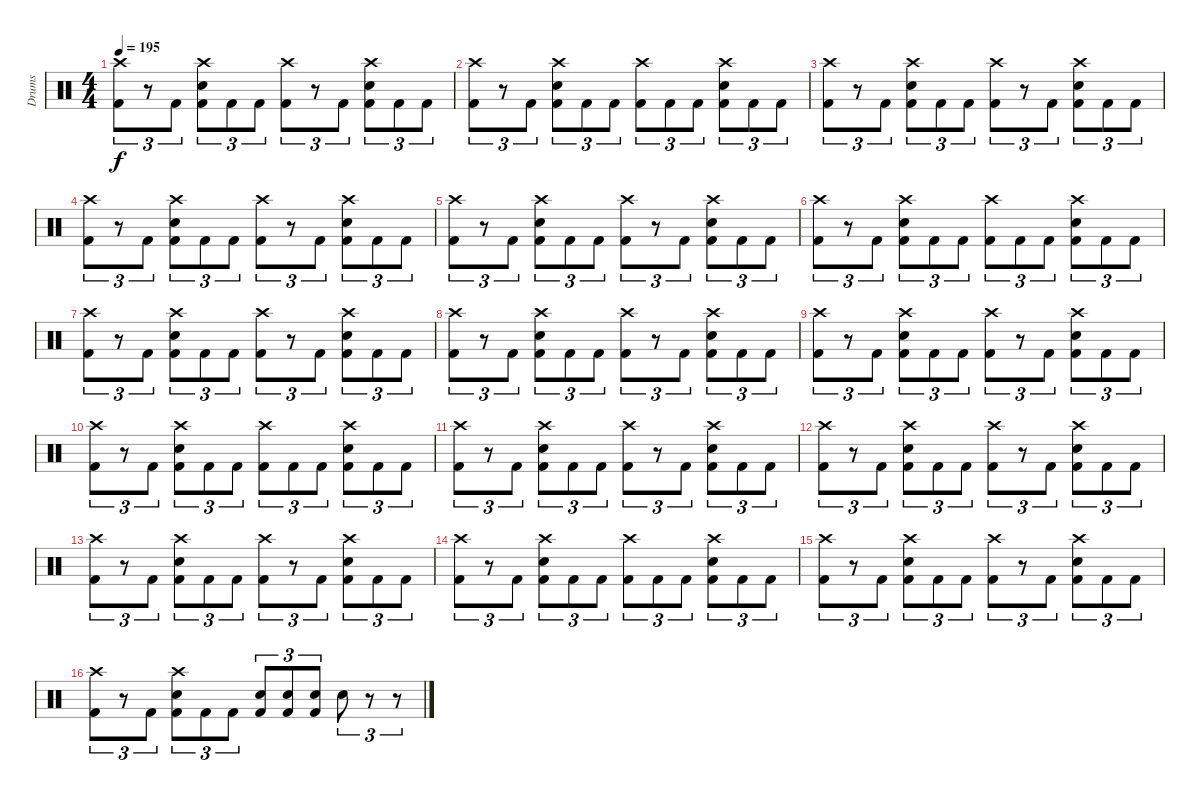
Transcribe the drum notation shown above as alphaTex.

\track ("Drums" "Drums") {instrument percussion}
\staff {score}
\articulation defaults
\ts (4 4)
\tempo 195
\clef neutral
\ks c
("Crash high (hit)" "Kick (hit) 2").8{tu (3 2) dy f} r.8{tu (3 2)} "Kick (hit) 2".8{tu (3 2)} ("Crash high (hit)" "Snare (hit) 2" "Kick (hit) 2").8{tu (3 2)} "Kick (hit) 2".8{tu (3 2)} "Kick (hit) 2".8{tu (3 2)} ("Crash high (hit)" "Kick (hit) 2").8{tu (3 2)} r.8{tu (3 2)} "Kick (hit) 2".8{tu (3 2)} ("Crash high (hit)" "Snare (hit) 2" "Kick (hit) 2").8{tu (3 2)} "Kick (hit) 2".8{tu (3 2)} "Kick (hit) 2".8{tu (3 2)} |
("Crash high (hit)" "Kick (hit) 2").8{tu (3 2)} r.8{tu (3 2)} "Kick (hit) 2".8{tu (3 2)} ("Crash high (hit)" "Snare (hit) 2" "Kick (hit) 2").8{tu (3 2)} "Kick (hit) 2".8{tu (3 2)} "Kick (hit) 2".8{tu (3 2)} ("Crash high (hit)" "Kick (hit) 2").8{tu (3 2)} "Kick (hit) 2".8{tu (3 2)} "Kick (hit) 2".8{tu (3 2)} ("Crash high (hit)" "Snare (hit) 2" "Kick (hit) 2").8{tu (3 2)} "Kick (hit) 2".8{tu (3 2)} "Kick (hit) 2".8{tu (3 2)} |
("Crash high (hit)" "Kick (hit) 2").8{tu (3 2)} r.8{tu (3 2)} "Kick (hit) 2".8{tu (3 2)} ("Crash high (hit)" "Snare (hit) 2" "Kick (hit) 2").8{tu (3 2)} "Kick (hit) 2".8{tu (3 2)} "Kick (hit) 2".8{tu (3 2)} ("Crash high (hit)" "Kick (hit) 2").8{tu (3 2)} r.8{tu (3 2)} "Kick (hit) 2".8{tu (3 2)} ("Crash high (hit)" "Snare (hit) 2" "Kick (hit) 2").8{tu (3 2)} "Kick (hit) 2".8{tu (3 2)} "Kick (hit) 2".8{tu (3 2)} |
("Crash high (hit)" "Kick (hit) 2").8{tu (3 2)} r.8{tu (3 2)} "Kick (hit) 2".8{tu (3 2)} ("Crash high (hit)" "Snare (hit) 2" "Kick (hit) 2").8{tu (3 2)} "Kick (hit) 2".8{tu (3 2)} "Kick (hit) 2".8{tu (3 2)} ("Crash high (hit)" "Kick (hit) 2").8{tu (3 2)} r.8{tu (3 2)} "Kick (hit) 2".8{tu (3 2)} ("Crash high (hit)" "Snare (hit) 2" "Kick (hit) 2").8{tu (3 2)} "Kick (hit) 2".8{tu (3 2)} "Kick (hit) 2".8{tu (3 2)} |
("Crash high (hit)" "Kick (hit) 2").8{tu (3 2)} r.8{tu (3 2)} "Kick (hit) 2".8{tu (3 2)} ("Crash high (hit)" "Snare (hit) 2" "Kick (hit) 2").8{tu (3 2)} "Kick (hit) 2".8{tu (3 2)} "Kick (hit) 2".8{tu (3 2)} ("Crash high (hit)" "Kick (hit) 2").8{tu (3 2)} r.8{tu (3 2)} "Kick (hit) 2".8{tu (3 2)} ("Crash high (hit)" "Snare (hit) 2" "Kick (hit) 2").8{tu (3 2)} "Kick (hit) 2".8{tu (3 2)} "Kick (hit) 2".8{tu (3 2)} |
("Crash high (hit)" "Kick (hit) 2").8{tu (3 2)} r.8{tu (3 2)} "Kick (hit) 2".8{tu (3 2)} ("Crash high (hit)" "Snare (hit) 2" "Kick (hit) 2").8{tu (3 2)} "Kick (hit) 2".8{tu (3 2)} "Kick (hit) 2".8{tu (3 2)} ("Crash high (hit)" "Kick (hit) 2").8{tu (3 2)} "Kick (hit) 2".8{tu (3 2)} "Kick (hit) 2".8{tu (3 2)} ("Crash high (hit)" "Snare (hit) 2" "Kick (hit) 2").8{tu (3 2)} "Kick (hit) 2".8{tu (3 2)} "Kick (hit) 2".8{tu (3 2)} |
("Crash high (hit)" "Kick (hit) 2").8{tu (3 2)} r.8{tu (3 2)} "Kick (hit) 2".8{tu (3 2)} ("Crash high (hit)" "Snare (hit) 2" "Kick (hit) 2").8{tu (3 2)} "Kick (hit) 2".8{tu (3 2)} "Kick (hit) 2".8{tu (3 2)} ("Crash high (hit)" "Kick (hit) 2").8{tu (3 2)} r.8{tu (3 2)} "Kick (hit) 2".8{tu (3 2)} ("Crash high (hit)" "Snare (hit) 2" "Kick (hit) 2").8{tu (3 2)} "Kick (hit) 2".8{tu (3 2)} "Kick (hit) 2".8{tu (3 2)} |
("Crash high (hit)" "Kick (hit) 2").8{tu (3 2)} r.8{tu (3 2)} "Kick (hit) 2".8{tu (3 2)} ("Crash high (hit)" "Snare (hit) 2" "Kick (hit) 2").8{tu (3 2)} "Kick (hit) 2".8{tu (3 2)} "Kick (hit) 2".8{tu (3 2)} ("Crash high (hit)" "Kick (hit) 2").8{tu (3 2)} r.8{tu (3 2)} "Kick (hit) 2".8{tu (3 2)} ("Crash high (hit)" "Snare (hit) 2" "Kick (hit) 2").8{tu (3 2)} "Kick (hit) 2".8{tu (3 2)} "Kick (hit) 2".8{tu (3 2)} |
("Crash high (hit)" "Kick (hit) 2").8{tu (3 2)} r.8{tu (3 2)} "Kick (hit) 2".8{tu (3 2)} ("Crash high (hit)" "Snare (hit) 2" "Kick (hit) 2").8{tu (3 2)} "Kick (hit) 2".8{tu (3 2)} "Kick (hit) 2".8{tu (3 2)} ("Crash high (hit)" "Kick (hit) 2").8{tu (3 2)} r.8{tu (3 2)} "Kick (hit) 2".8{tu (3 2)} ("Crash high (hit)" "Snare (hit) 2" "Kick (hit) 2").8{tu (3 2)} "Kick (hit) 2".8{tu (3 2)} "Kick (hit) 2".8{tu (3 2)} |
("Crash high (hit)" "Kick (hit) 2").8{tu (3 2)} r.8{tu (3 2)} "Kick (hit) 2".8{tu (3 2)} ("Crash high (hit)" "Snare (hit) 2" "Kick (hit) 2").8{tu (3 2)} "Kick (hit) 2".8{tu (3 2)} "Kick (hit) 2".8{tu (3 2)} ("Crash high (hit)" "Kick (hit) 2").8{tu (3 2)} "Kick (hit) 2".8{tu (3 2)} "Kick (hit) 2".8{tu (3 2)} ("Crash high (hit)" "Snare (hit) 2" "Kick (hit) 2").8{tu (3 2)} "Kick (hit) 2".8{tu (3 2)} "Kick (hit) 2".8{tu (3 2)} |
("Crash high (hit)" "Kick (hit) 2").8{tu (3 2)} r.8{tu (3 2)} "Kick (hit) 2".8{tu (3 2)} ("Crash high (hit)" "Snare (hit) 2" "Kick (hit) 2").8{tu (3 2)} "Kick (hit) 2".8{tu (3 2)} "Kick (hit) 2".8{tu (3 2)} ("Crash high (hit)" "Kick (hit) 2").8{tu (3 2)} r.8{tu (3 2)} "Kick (hit) 2".8{tu (3 2)} ("Crash high (hit)" "Snare (hit) 2" "Kick (hit) 2").8{tu (3 2)} "Kick (hit) 2".8{tu (3 2)} "Kick (hit) 2".8{tu (3 2)} |
("Crash high (hit)" "Kick (hit) 2").8{tu (3 2)} r.8{tu (3 2)} "Kick (hit) 2".8{tu (3 2)} ("Crash high (hit)" "Snare (hit) 2" "Kick (hit) 2").8{tu (3 2)} "Kick (hit) 2".8{tu (3 2)} "Kick (hit) 2".8{tu (3 2)} ("Crash high (hit)" "Kick (hit) 2").8{tu (3 2)} r.8{tu (3 2)} "Kick (hit) 2".8{tu (3 2)} ("Crash high (hit)" "Snare (hit) 2" "Kick (hit) 2").8{tu (3 2)} "Kick (hit) 2".8{tu (3 2)} "Kick (hit) 2".8{tu (3 2)} |
("Crash high (hit)" "Kick (hit) 2").8{tu (3 2)} r.8{tu (3 2)} "Kick (hit) 2".8{tu (3 2)} ("Crash high (hit)" "Snare (hit) 2" "Kick (hit) 2").8{tu (3 2)} "Kick (hit) 2".8{tu (3 2)} "Kick (hit) 2".8{tu (3 2)} ("Crash high (hit)" "Kick (hit) 2").8{tu (3 2)} r.8{tu (3 2)} "Kick (hit) 2".8{tu (3 2)} ("Crash high (hit)" "Snare (hit) 2" "Kick (hit) 2").8{tu (3 2)} "Kick (hit) 2".8{tu (3 2)} "Kick (hit) 2".8{tu (3 2)} |
("Crash high (hit)" "Kick (hit) 2").8{tu (3 2)} r.8{tu (3 2)} "Kick (hit) 2".8{tu (3 2)} ("Crash high (hit)" "Snare (hit) 2" "Kick (hit) 2").8{tu (3 2)} "Kick (hit) 2".8{tu (3 2)} "Kick (hit) 2".8{tu (3 2)} ("Crash high (hit)" "Kick (hit) 2").8{tu (3 2)} "Kick (hit) 2".8{tu (3 2)} "Kick (hit) 2".8{tu (3 2)} ("Crash high (hit)" "Snare (hit) 2" "Kick (hit) 2").8{tu (3 2)} "Kick (hit) 2".8{tu (3 2)} "Kick (hit) 2".8{tu (3 2)} |
("Crash high (hit)" "Kick (hit) 2").8{tu (3 2)} r.8{tu (3 2)} "Kick (hit) 2".8{tu (3 2)} ("Crash high (hit)" "Snare (hit) 2" "Kick (hit) 2").8{tu (3 2)} "Kick (hit) 2".8{tu (3 2)} "Kick (hit) 2".8{tu (3 2)} ("Crash high (hit)" "Kick (hit) 2").8{tu (3 2)} r.8{tu (3 2)} "Kick (hit) 2".8{tu (3 2)} ("Crash high (hit)" "Snare (hit) 2" "Kick (hit) 2").8{tu (3 2)} "Kick (hit) 2".8{tu (3 2)} "Kick (hit) 2".8{tu (3 2)} |
("Crash high (hit)" "Kick (hit) 2").8{tu (3 2)} r.8{tu (3 2)} "Kick (hit) 2".8{tu (3 2)} ("Crash high (hit)" "Snare (hit) 2" "Kick (hit) 2").8{tu (3 2)} "Kick (hit) 2".8{tu (3 2)} "Kick (hit) 2".8{tu (3 2)} ("Snare (hit) 2" "Kick (hit) 2").8{tu (3 2)} ("Snare (hit) 2" "Kick (hit) 2").8{tu (3 2)} ("Snare (hit) 2" "Kick (hit) 2").8{tu (3 2)} "Snare (hit) 2".8{tu (3 2)} r.8{tu (3 2)} r.8{tu (3 2)}
